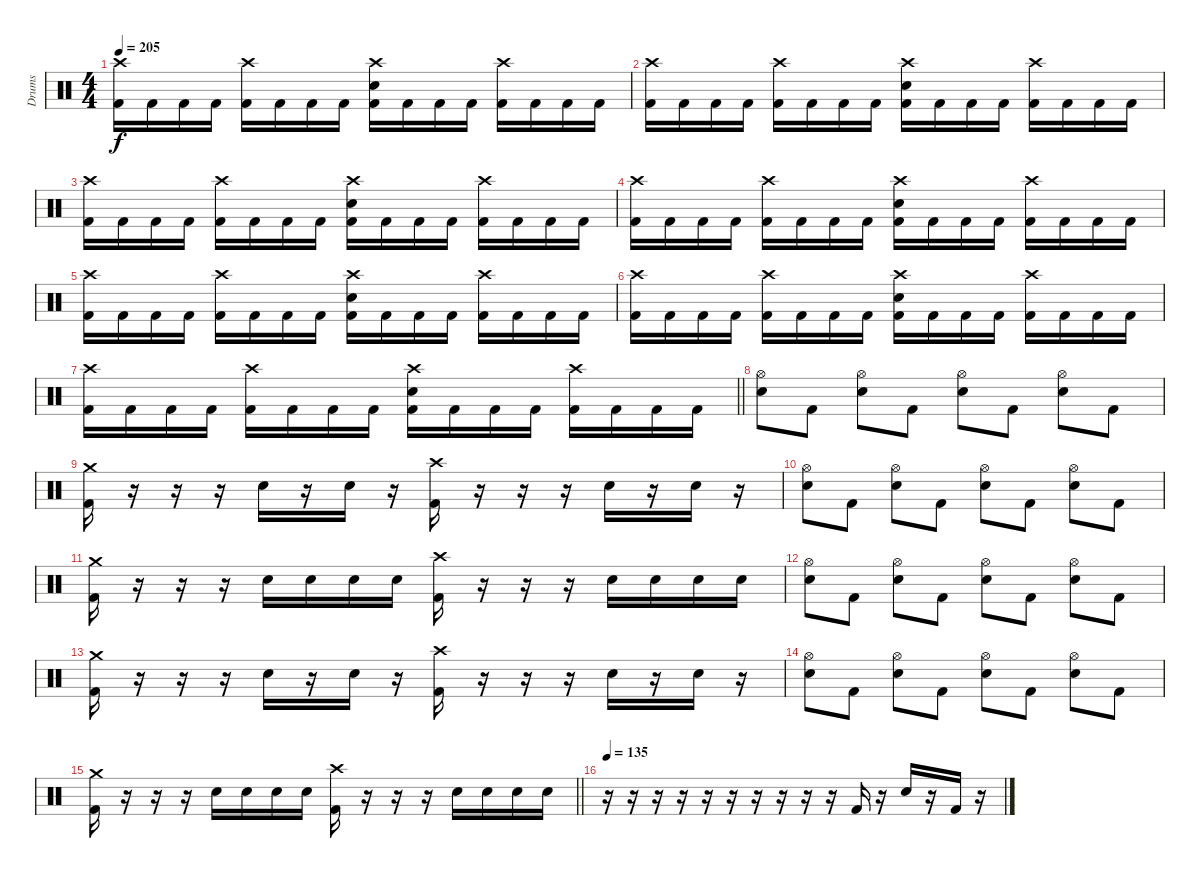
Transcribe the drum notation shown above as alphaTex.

\track ("Drums" "Drums") {instrument percussion}
\staff {score}
\articulation defaults
\ts (4 4)
\tempo 205
\clef neutral
\ks c
("Crash high (hit)" "Kick (hit) 2").16{dy f} "Kick (hit) 2".16 "Kick (hit) 2".16 "Kick (hit) 2".16 ("Crash high (hit)" "Kick (hit) 2").16 "Kick (hit) 2".16 "Kick (hit) 2".16 "Kick (hit) 2".16 ("Crash high (hit)" "Electric Snare (hit)" "Kick (hit) 2").16 "Kick (hit) 2".16 "Kick (hit) 2".16 "Kick (hit) 2".16 ("Crash high (hit)" "Kick (hit) 2").16 "Kick (hit) 2".16 "Kick (hit) 2".16 "Kick (hit) 2".16 |
("Crash high (hit)" "Kick (hit) 2").16 "Kick (hit) 2".16 "Kick (hit) 2".16 "Kick (hit) 2".16 ("Crash high (hit)" "Kick (hit) 2").16 "Kick (hit) 2".16 "Kick (hit) 2".16 "Kick (hit) 2".16 ("Crash high (hit)" "Electric Snare (hit)" "Kick (hit) 2").16 "Kick (hit) 2".16 "Kick (hit) 2".16 "Kick (hit) 2".16 ("Crash high (hit)" "Kick (hit) 2").16 "Kick (hit) 2".16 "Kick (hit) 2".16 "Kick (hit) 2".16 |
("Crash high (hit)" "Kick (hit) 2").16 "Kick (hit) 2".16 "Kick (hit) 2".16 "Kick (hit) 2".16 ("Crash high (hit)" "Kick (hit) 2").16 "Kick (hit) 2".16 "Kick (hit) 2".16 "Kick (hit) 2".16 ("Crash high (hit)" "Electric Snare (hit)" "Kick (hit) 2").16 "Kick (hit) 2".16 "Kick (hit) 2".16 "Kick (hit) 2".16 ("Crash high (hit)" "Kick (hit) 2").16 "Kick (hit) 2".16 "Kick (hit) 2".16 "Kick (hit) 2".16 |
("Crash high (hit)" "Kick (hit) 2").16 "Kick (hit) 2".16 "Kick (hit) 2".16 "Kick (hit) 2".16 ("Crash high (hit)" "Kick (hit) 2").16 "Kick (hit) 2".16 "Kick (hit) 2".16 "Kick (hit) 2".16 ("Crash high (hit)" "Electric Snare (hit)" "Kick (hit) 2").16 "Kick (hit) 2".16 "Kick (hit) 2".16 "Kick (hit) 2".16 ("Crash high (hit)" "Kick (hit) 2").16 "Kick (hit) 2".16 "Kick (hit) 2".16 "Kick (hit) 2".16 |
("Crash high (hit)" "Kick (hit) 2").16 "Kick (hit) 2".16 "Kick (hit) 2".16 "Kick (hit) 2".16 ("Crash high (hit)" "Kick (hit) 2").16 "Kick (hit) 2".16 "Kick (hit) 2".16 "Kick (hit) 2".16 ("Crash high (hit)" "Electric Snare (hit)" "Kick (hit) 2").16 "Kick (hit) 2".16 "Kick (hit) 2".16 "Kick (hit) 2".16 ("Crash high (hit)" "Kick (hit) 2").16 "Kick (hit) 2".16 "Kick (hit) 2".16 "Kick (hit) 2".16 |
("Crash high (hit)" "Kick (hit) 2").16 "Kick (hit) 2".16 "Kick (hit) 2".16 "Kick (hit) 2".16 ("Crash high (hit)" "Kick (hit) 2").16 "Kick (hit) 2".16 "Kick (hit) 2".16 "Kick (hit) 2".16 ("Crash high (hit)" "Electric Snare (hit)" "Kick (hit) 2").16 "Kick (hit) 2".16 "Kick (hit) 2".16 "Kick (hit) 2".16 ("Crash high (hit)" "Kick (hit) 2").16 "Kick (hit) 2".16 "Kick (hit) 2".16 "Kick (hit) 2".16 |
\barLineRight lightlight
("Crash high (hit)" "Kick (hit) 2").16 "Kick (hit) 2".16 "Kick (hit) 2".16 "Kick (hit) 2".16 ("Crash high (hit)" "Kick (hit) 2").16 "Kick (hit) 2".16 "Kick (hit) 2".16 "Kick (hit) 2".16 ("Crash high (hit)" "Electric Snare (hit)" "Kick (hit) 2").16 "Kick (hit) 2".16 "Kick (hit) 2".16 "Kick (hit) 2".16 ("Crash high (hit)" "Kick (hit) 2").16 "Kick (hit) 2".16 "Kick (hit) 2".16 "Kick (hit) 2".16 |
("Hi-Hat (open)" "Electric Snare (hit)").8 "Kick (hit) 2".8 ("Hi-Hat (open)" "Electric Snare (hit)").8 "Kick (hit) 2".8 ("Hi-Hat (open)" "Electric Snare (hit)").8 "Kick (hit) 2".8 ("Hi-Hat (open)" "Electric Snare (hit)").8 "Kick (hit) 2".8 |
("Crash medium (hit)" "Kick (hit) 2").16 r.16 r.16 r.16 "Electric Snare (hit)".16 r.16 "Electric Snare (hit)".16 r.16 ("Crash high (hit)" "Kick (hit) 2").16 r.16 r.16 r.16 "Electric Snare (hit)".16 r.16 "Electric Snare (hit)".16 r.16 |
("Hi-Hat (open)" "Electric Snare (hit)").8 "Kick (hit) 2".8 ("Hi-Hat (open)" "Electric Snare (hit)").8 "Kick (hit) 2".8 ("Hi-Hat (open)" "Electric Snare (hit)").8 "Kick (hit) 2".8 ("Hi-Hat (open)" "Electric Snare (hit)").8 "Kick (hit) 2".8 |
("Crash medium (hit)" "Kick (hit) 2").16 r.16 r.16 r.16 "Electric Snare (hit)".16 "Electric Snare (hit)".16 "Electric Snare (hit)".16 "Electric Snare (hit)".16 ("Crash high (hit)" "Kick (hit) 2").16 r.16 r.16 r.16 "Electric Snare (hit)".16 "Electric Snare (hit)".16 "Electric Snare (hit)".16 "Electric Snare (hit)".16 |
("Hi-Hat (open)" "Electric Snare (hit)").8 "Kick (hit) 2".8 ("Hi-Hat (open)" "Electric Snare (hit)").8 "Kick (hit) 2".8 ("Hi-Hat (open)" "Electric Snare (hit)").8 "Kick (hit) 2".8 ("Hi-Hat (open)" "Electric Snare (hit)").8 "Kick (hit) 2".8 |
("Crash medium (hit)" "Kick (hit) 2").16 r.16 r.16 r.16 "Electric Snare (hit)".16 r.16 "Electric Snare (hit)".16 r.16 ("Crash high (hit)" "Kick (hit) 2").16 r.16 r.16 r.16 "Electric Snare (hit)".16 r.16 "Electric Snare (hit)".16 r.16 |
("Hi-Hat (open)" "Electric Snare (hit)").8 "Kick (hit) 2".8 ("Hi-Hat (open)" "Electric Snare (hit)").8 "Kick (hit) 2".8 ("Hi-Hat (open)" "Electric Snare (hit)").8 "Kick (hit) 2".8 ("Hi-Hat (open)" "Electric Snare (hit)").8 "Kick (hit) 2".8 |
\barLineRight lightlight
("Crash medium (hit)" "Kick (hit) 2").16 r.16 r.16 r.16 "Electric Snare (hit)".16 "Electric Snare (hit)".16 "Electric Snare (hit)".16 "Electric Snare (hit)".16 ("Crash high (hit)" "Kick (hit) 2").16 r.16 r.16 r.16 "Electric Snare (hit)".16 "Electric Snare (hit)".16 "Electric Snare (hit)".16 "Electric Snare (hit)".16 |
\tempo 135
r.16 r.16 r.16 r.16 r.16 r.16 r.16 r.16 r.16 r.16 "Kick (hit) 2".16 r.16 "Electric Snare (hit)".16 r.16 "Kick (hit) 2".16{beam merge} r.16
